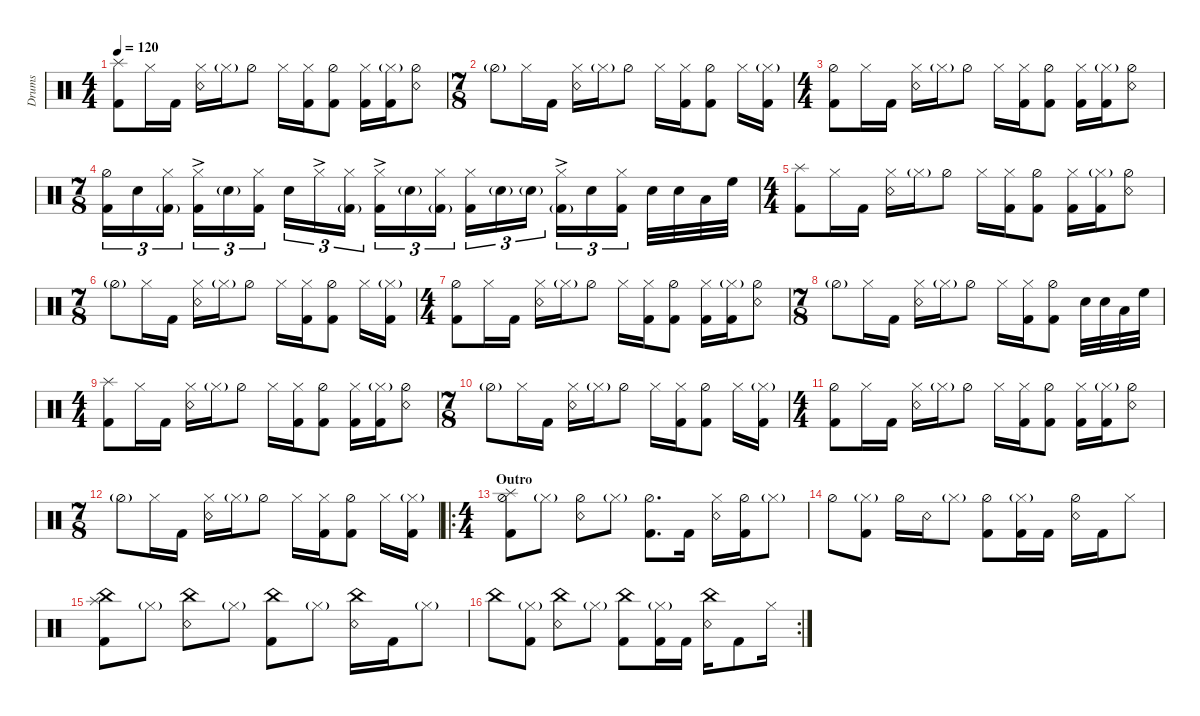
\defaultSystemsLayout 2
\hideDynamics
\bracketExtendMode nobrackets
\otherSystemsTrackNameOrientation horizontal
\track ("Drums" "Drums") {defaultSystemsLayout 2 instrument percussion}
\staff {score}
\articulation defaults
\ts (4 4)
\scale
1.0306
\tempo 120
\accidentals auto
\clef neutral
\ottava regular
\simile none
\scale
1.0209
\ks c
("Kick (hit) 2" "Splash (hit)").8{dy mp} "Hi-Hat (closed)".16 "Kick (hit) 2".16 ("Snare (rim shot)" "Hi-Hat (closed)").16 "Hi-Hat (closed)"{g}.16 "Hi-Hat (half)".8 "Hi-Hat (closed)".16 ("Hi-Hat (closed)" "Kick (hit) 2").16 ("Hi-Hat (half)" "Kick (hit) 2").8 ("Kick (hit) 2" "Hi-Hat (closed)").16 ("Kick (hit) 2" "Hi-Hat (closed)"{g}).16 ("Snare (rim shot)" "Hi-Hat (half)").8 |
\ts (7 8)
\beaming (8 3 2 2)
\scale
0.969404
\scale
0.979098 "Hi-Hat (half)"{g}.8 "Hi-Hat (closed)".16 "Kick (hit) 2".16{beam split} ("Snare (rim shot)" "Hi-Hat (closed)").16 "Hi-Hat (closed)"{g}.16{beam merge} "Hi-Hat (half)".8{beam split} "Hi-Hat (closed)".16 ("Hi-Hat (closed)" "Kick (hit) 2").16{beam merge} ("Hi-Hat (half)" "Kick (hit) 2").8{beam split} "Hi-Hat (closed)".16 ("Kick (hit) 2" "Hi-Hat (closed)"{g}).16 |
\ts (4 4)
\beaming (8 2 2 2 2)
\scale
1.0306
\scale
1.0209 ("Kick (hit) 2" "Hi-Hat (half)").8 "Hi-Hat (closed)".16 "Kick (hit) 2".16 ("Snare (rim shot)" "Hi-Hat (closed)").16 "Hi-Hat (closed)"{g}.16 "Hi-Hat (half)".8 "Hi-Hat (closed)".16 ("Hi-Hat (closed)" "Kick (hit) 2").16 ("Hi-Hat (half)" "Kick (hit) 2").8 ("Kick (hit) 2" "Hi-Hat (closed)").16 ("Kick (hit) 2" "Hi-Hat (closed)"{g}).16 ("Snare (rim shot)" "Hi-Hat (half)").8 |
\ts (7 8)
\beaming (8 3 2 2)
\scale
0.969404
\scale
0.979098 ("Hi-Hat (half)" "Kick (hit) 2").16{tu (3 2)} "Snare (hit) 2".16{tu (3 2) dy p} ("Hi-Hat (closed)" "Kick (hit) 2"{g}).16{tu (3 2) dy mp beam splitsecondary} ("Hi-Hat (closed)"{ac} "Kick (hit) 2").16{tu (3 2)} "Snare (hit) 2"{g}.16{tu (3 2)} ("Hi-Hat (closed)" "Kick (hit) 2").16{tu (3 2)} "Snare (hit) 2".16{tu (3 2)} "Hi-Hat (closed)"{ac}.16{tu (3 2) dy mf} ("Hi-Hat (closed)" "Kick (hit) 2"{g}).16{tu (3 2) dy mp beam splitsecondary} ("Hi-Hat (closed)"{ac} "Kick (hit) 2").16{tu (3 2)} "Snare (hit) 2"{g}.16{tu (3 2)} ("Kick (hit) 2"{g} "Hi-Hat (closed)").16{tu (3 2)} ("Hi-Hat (closed)" "Kick (hit) 2").16{tu (3 2)} "Snare (hit) 2"{g}.16{tu (3 2) dy p} "Snare (hit) 2"{g}.16{tu (3 2) dy mp beam splitsecondary} ("Hi-Hat (closed)"{ac} "Kick (hit) 2"{g}).16{tu (3 2)} "Snare (hit) 2".16{tu (3 2)} ("Hi-Hat (closed)" "Kick (hit) 2").16{tu (3 2)} "Snare (hit) 2".32{dy ff} "Snare (hit) 2".32 "Low Tom (hit)".32 "High Floor Tom (hit)".32 |
\ts (4 4)
\beaming (8 2 2 2 2)
\scale
1.0306
\scale
1.02297 ("Kick (hit) 2" "Splash (hit)").8{dy mp} "Hi-Hat (closed)".16 "Kick (hit) 2".16 ("Snare (rim shot)" "Hi-Hat (closed)").16 "Hi-Hat (closed)"{g}.16 "Hi-Hat (half)".8 "Hi-Hat (closed)".16 ("Hi-Hat (closed)" "Kick (hit) 2").16 ("Hi-Hat (half)" "Kick (hit) 2").8 ("Kick (hit) 2" "Hi-Hat (closed)").16 ("Kick (hit) 2" "Hi-Hat (closed)"{g}).16 ("Snare (rim shot)" "Hi-Hat (half)").8 |
\ts (7 8)
\beaming (8 3 2 2)
\scale
0.969404
\scale
0.977026 "Hi-Hat (half)"{g}.8 "Hi-Hat (closed)".16 "Kick (hit) 2".16{beam split} ("Snare (rim shot)" "Hi-Hat (closed)").16 "Hi-Hat (closed)"{g}.16{beam merge} "Hi-Hat (half)".8{beam split} "Hi-Hat (closed)".16 ("Hi-Hat (closed)" "Kick (hit) 2").16{beam merge} ("Hi-Hat (half)" "Kick (hit) 2").8{beam split} "Hi-Hat (closed)".16 ("Kick (hit) 2" "Hi-Hat (closed)"{g}).16 |
\ts (4 4)
\beaming (8 2 2 2 2)
\scale
1.0306
\scale
1.02297 ("Kick (hit) 2" "Hi-Hat (half)").8 "Hi-Hat (closed)".16 "Kick (hit) 2".16 ("Snare (rim shot)" "Hi-Hat (closed)").16 "Hi-Hat (closed)"{g}.16 "Hi-Hat (half)".8 "Hi-Hat (closed)".16 ("Hi-Hat (closed)" "Kick (hit) 2").16 ("Hi-Hat (half)" "Kick (hit) 2").8 ("Kick (hit) 2" "Hi-Hat (closed)").16 ("Kick (hit) 2" "Hi-Hat (closed)"{g}).16 ("Snare (rim shot)" "Hi-Hat (half)").8 |
\ts (7 8)
\beaming (8 3 2 2)
\scale
0.969404
\scale
0.977026 "Hi-Hat (half)"{g}.8 "Hi-Hat (closed)".16 "Kick (hit) 2".16{beam split} ("Snare (rim shot)" "Hi-Hat (closed)").16 "Hi-Hat (closed)"{g}.16{beam merge} "Hi-Hat (half)".8{beam split} "Hi-Hat (closed)".16 ("Hi-Hat (closed)" "Kick (hit) 2").16{beam merge} ("Hi-Hat (half)" "Kick (hit) 2").8{beam split} "Snare (hit) 2".32{dy ff} "Snare (hit) 2".32 "Low Tom (hit)".32 "High Floor Tom (hit)".32 |
\ts (4 4)
\beaming (8 2 2 2 2)
\scale
1.0306
\scale
1.02297 ("Kick (hit) 2" "Splash (hit)").8{dy mp} "Hi-Hat (closed)".16 "Kick (hit) 2".16 ("Snare (rim shot)" "Hi-Hat (closed)").16 "Hi-Hat (closed)"{g}.16 "Hi-Hat (half)".8 "Hi-Hat (closed)".16 ("Hi-Hat (closed)" "Kick (hit) 2").16 ("Hi-Hat (half)" "Kick (hit) 2").8 ("Kick (hit) 2" "Hi-Hat (closed)").16 ("Kick (hit) 2" "Hi-Hat (closed)"{g}).16 ("Snare (rim shot)" "Hi-Hat (half)").8 |
\ts (7 8)
\beaming (8 3 2 2)
\scale
0.969404
\scale
0.977026 "Hi-Hat (half)"{g}.8 "Hi-Hat (closed)".16 "Kick (hit) 2".16{beam split} ("Snare (rim shot)" "Hi-Hat (closed)").16 "Hi-Hat (closed)"{g}.16{beam merge} "Hi-Hat (half)".8{beam split} "Hi-Hat (closed)".16 ("Hi-Hat (closed)" "Kick (hit) 2").16{beam merge} ("Hi-Hat (half)" "Kick (hit) 2").8{beam split} "Hi-Hat (closed)".16 ("Kick (hit) 2" "Hi-Hat (closed)"{g}).16 |
\ts (4 4)
\beaming (8 2 2 2 2)
\scale
1.0306
\scale
1.02297 ("Kick (hit) 2" "Hi-Hat (half)").8 "Hi-Hat (closed)".16 "Kick (hit) 2".16 ("Snare (rim shot)" "Hi-Hat (closed)").16 "Hi-Hat (closed)"{g}.16 "Hi-Hat (half)".8 "Hi-Hat (closed)".16 ("Hi-Hat (closed)" "Kick (hit) 2").16 ("Hi-Hat (half)" "Kick (hit) 2").8 ("Kick (hit) 2" "Hi-Hat (closed)").16 ("Kick (hit) 2" "Hi-Hat (closed)"{g}).16 ("Snare (rim shot)" "Hi-Hat (half)").8 |
\ts (7 8)
\beaming (8 3 2 2)
\scale
0.969404
\scale
0.977027 "Hi-Hat (half)"{g}.8 "Hi-Hat (closed)".16 "Kick (hit) 2".16{beam split} ("Snare (rim shot)" "Hi-Hat (closed)").16 "Hi-Hat (closed)"{g}.16{beam merge} "Hi-Hat (half)".8{beam split} "Hi-Hat (closed)".16 ("Hi-Hat (closed)" "Kick (hit) 2").16{beam merge} ("Hi-Hat (half)" "Kick (hit) 2").8{beam split} "Hi-Hat (closed)".16 ("Kick (hit) 2" "Hi-Hat (closed)"{g}).16 |
\ro
\ts (4 4)
\beaming (8 2 2 2 2)
\section ("" "Outro")
\scale
1.07608
\scale
1.06639 ("Kick (hit) 2" "Hi-Hat (half)" "Splash (hit)").8{dy f} "Hi-Hat (closed)"{g}.8 ("Snare (rim shot)" "Hi-Hat (half)").8 "Hi-Hat (closed)"{g}.8 ("Hi-Hat (half)" "Kick (hit) 2").8{d} "Kick (hit) 2".16 ("Snare (rim shot)" "Hi-Hat (closed)").16 ("Kick (hit) 2" "Hi-Hat (half)").16 "Hi-Hat (closed)"{g}.8 |
\scale
0.923917
\scale
0.933612 "Hi-Hat (half)".8 ("Hi-Hat (closed)"{g} "Kick (hit) 2").8 "Hi-Hat (half)".16 "Snare (rim shot)".16 "Hi-Hat (closed)"{g}.8 ("Kick (hit) 2" "Hi-Hat (half)").8 ("Hi-Hat (closed)"{g} "Kick (hit) 2").16 "Kick (hit) 2".16 ("Snare (rim shot)" "Hi-Hat (half)").16 "Kick (hit) 2".16 "Hi-Hat (closed)".8 |
\scale
1.25688
\scale
1.2658 ("Kick (hit) 2" "Splash (hit)" "China (hit)").8 "Hi-Hat (closed)"{g}.8 ("Snare (rim shot)" "China (hit)").8 "Hi-Hat (closed)"{g}.8 ("Kick (hit) 2" "China (hit)").8 "Hi-Hat (closed)"{g}.8 ("Snare (rim shot)" "China (hit)").16 "Kick (hit) 2".16 "Hi-Hat (closed)"{g}.8 |
\rc 2
\scale
1.19751
\scale
1.27561 "China (hit)".8 ("Hi-Hat (closed)"{g} "Kick (hit) 2").8 ("Snare (rim shot)" "China (hit)").8 "Hi-Hat (closed)"{g}.8 ("Kick (hit) 2" "China (hit)").8 ("Hi-Hat (closed)"{g} "Kick (hit) 2").16 "Kick (hit) 2".16 ("Snare (rim shot)" "China (hit)").16 "Kick (hit) 2".8 "Hi-Hat (closed)".16
